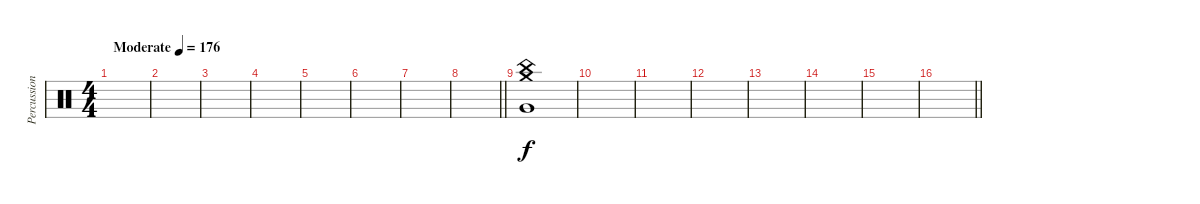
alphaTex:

\track ("Percussion" "Percussion") {instrument percussion}
\staff {score}
\articulation defaults
\ts (4 4)
\tempo (176 "Moderate")
\clef neutral
\ks c
|
|
|
|
|
|
|
\barLineRight lightlight
|
("China (hit)" "Crash medium (hit)" "Very Low Tom (hit)").1 |
|
|
|
|
|
|
\barLineRight lightlight
